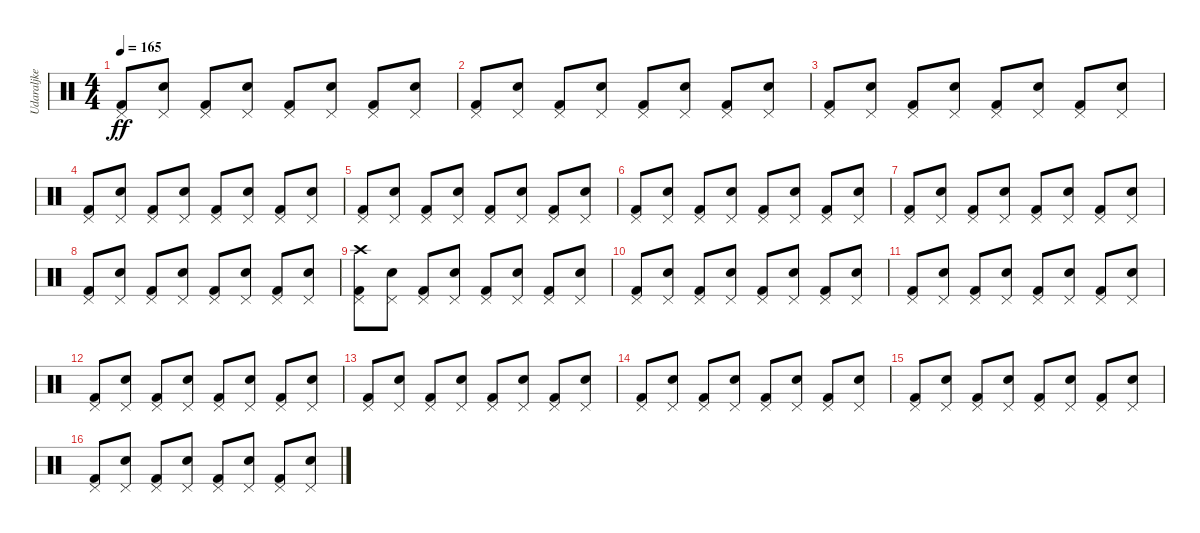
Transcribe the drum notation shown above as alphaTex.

\track ("Udaraljke" "Udaraljke") {instrument percussion}
\staff {score}
\articulation defaults
\ts (4 4)
\tempo 165
\clef neutral
\ks c
("Kick (hit) 2" "Pedal Hi-Hat (hit)").8{dy ff} ("Snare (hit) 2" "Pedal Hi-Hat (hit)").8 ("Kick (hit) 2" "Pedal Hi-Hat (hit)").8 ("Snare (hit) 2" "Pedal Hi-Hat (hit)").8 ("Kick (hit) 2" "Pedal Hi-Hat (hit)").8 ("Snare (hit) 2" "Pedal Hi-Hat (hit)").8 ("Kick (hit) 2" "Pedal Hi-Hat (hit)").8 ("Snare (hit) 2" "Pedal Hi-Hat (hit)").8 |
("Kick (hit) 2" "Pedal Hi-Hat (hit)").8 ("Snare (hit) 2" "Pedal Hi-Hat (hit)").8 ("Kick (hit) 2" "Pedal Hi-Hat (hit)").8 ("Snare (hit) 2" "Pedal Hi-Hat (hit)").8 ("Kick (hit) 2" "Pedal Hi-Hat (hit)").8 ("Snare (hit) 2" "Pedal Hi-Hat (hit)").8 ("Kick (hit) 2" "Pedal Hi-Hat (hit)").8 ("Snare (hit) 2" "Pedal Hi-Hat (hit)").8 |
("Kick (hit) 2" "Pedal Hi-Hat (hit)").8 ("Snare (hit) 2" "Pedal Hi-Hat (hit)").8 ("Kick (hit) 2" "Pedal Hi-Hat (hit)").8 ("Snare (hit) 2" "Pedal Hi-Hat (hit)").8 ("Kick (hit) 2" "Pedal Hi-Hat (hit)").8 ("Snare (hit) 2" "Pedal Hi-Hat (hit)").8 ("Kick (hit) 2" "Pedal Hi-Hat (hit)").8 ("Snare (hit) 2" "Pedal Hi-Hat (hit)").8 |
("Kick (hit) 2" "Pedal Hi-Hat (hit)").8 ("Snare (hit) 2" "Pedal Hi-Hat (hit)").8 ("Kick (hit) 2" "Pedal Hi-Hat (hit)").8 ("Snare (hit) 2" "Pedal Hi-Hat (hit)").8 ("Kick (hit) 2" "Pedal Hi-Hat (hit)").8 ("Snare (hit) 2" "Pedal Hi-Hat (hit)").8 ("Kick (hit) 2" "Pedal Hi-Hat (hit)").8 ("Snare (hit) 2" "Pedal Hi-Hat (hit)").8 |
("Kick (hit) 2" "Pedal Hi-Hat (hit)").8 ("Snare (hit) 2" "Pedal Hi-Hat (hit)").8 ("Kick (hit) 2" "Pedal Hi-Hat (hit)").8 ("Snare (hit) 2" "Pedal Hi-Hat (hit)").8 ("Kick (hit) 2" "Pedal Hi-Hat (hit)").8 ("Snare (hit) 2" "Pedal Hi-Hat (hit)").8 ("Kick (hit) 2" "Pedal Hi-Hat (hit)").8 ("Snare (hit) 2" "Pedal Hi-Hat (hit)").8 |
("Kick (hit) 2" "Pedal Hi-Hat (hit)").8 ("Snare (hit) 2" "Pedal Hi-Hat (hit)").8 ("Kick (hit) 2" "Pedal Hi-Hat (hit)").8 ("Snare (hit) 2" "Pedal Hi-Hat (hit)").8 ("Kick (hit) 2" "Pedal Hi-Hat (hit)").8 ("Snare (hit) 2" "Pedal Hi-Hat (hit)").8 ("Kick (hit) 2" "Pedal Hi-Hat (hit)").8 ("Snare (hit) 2" "Pedal Hi-Hat (hit)").8 |
("Kick (hit) 2" "Pedal Hi-Hat (hit)").8 ("Snare (hit) 2" "Pedal Hi-Hat (hit)").8 ("Kick (hit) 2" "Pedal Hi-Hat (hit)").8 ("Snare (hit) 2" "Pedal Hi-Hat (hit)").8 ("Kick (hit) 2" "Pedal Hi-Hat (hit)").8 ("Snare (hit) 2" "Pedal Hi-Hat (hit)").8 ("Kick (hit) 2" "Pedal Hi-Hat (hit)").8 ("Snare (hit) 2" "Pedal Hi-Hat (hit)").8 |
("Kick (hit) 2" "Pedal Hi-Hat (hit)").8 ("Snare (hit) 2" "Pedal Hi-Hat (hit)").8 ("Kick (hit) 2" "Pedal Hi-Hat (hit)").8 ("Snare (hit) 2" "Pedal Hi-Hat (hit)").8 ("Kick (hit) 2" "Pedal Hi-Hat (hit)").8 ("Snare (hit) 2" "Pedal Hi-Hat (hit)").8 ("Kick (hit) 2" "Pedal Hi-Hat (hit)").8 ("Snare (hit) 2" "Pedal Hi-Hat (hit)").8 |
("Kick (hit) 2" "Pedal Hi-Hat (hit)" "Crash high (hit)").8 ("Snare (hit) 2" "Pedal Hi-Hat (hit)").8 ("Kick (hit) 2" "Pedal Hi-Hat (hit)").8 ("Snare (hit) 2" "Pedal Hi-Hat (hit)").8 ("Kick (hit) 2" "Pedal Hi-Hat (hit)").8 ("Snare (hit) 2" "Pedal Hi-Hat (hit)").8 ("Kick (hit) 2" "Pedal Hi-Hat (hit)").8 ("Snare (hit) 2" "Pedal Hi-Hat (hit)").8 |
("Kick (hit) 2" "Pedal Hi-Hat (hit)").8 ("Snare (hit) 2" "Pedal Hi-Hat (hit)").8 ("Kick (hit) 2" "Pedal Hi-Hat (hit)").8 ("Snare (hit) 2" "Pedal Hi-Hat (hit)").8 ("Kick (hit) 2" "Pedal Hi-Hat (hit)").8 ("Snare (hit) 2" "Pedal Hi-Hat (hit)").8 ("Kick (hit) 2" "Pedal Hi-Hat (hit)").8 ("Snare (hit) 2" "Pedal Hi-Hat (hit)").8 |
("Kick (hit) 2" "Pedal Hi-Hat (hit)").8 ("Snare (hit) 2" "Pedal Hi-Hat (hit)").8 ("Kick (hit) 2" "Pedal Hi-Hat (hit)").8 ("Snare (hit) 2" "Pedal Hi-Hat (hit)").8 ("Kick (hit) 2" "Pedal Hi-Hat (hit)").8 ("Snare (hit) 2" "Pedal Hi-Hat (hit)").8 ("Kick (hit) 2" "Pedal Hi-Hat (hit)").8 ("Snare (hit) 2" "Pedal Hi-Hat (hit)").8 |
("Kick (hit) 2" "Pedal Hi-Hat (hit)").8 ("Snare (hit) 2" "Pedal Hi-Hat (hit)").8 ("Kick (hit) 2" "Pedal Hi-Hat (hit)").8 ("Snare (hit) 2" "Pedal Hi-Hat (hit)").8 ("Kick (hit) 2" "Pedal Hi-Hat (hit)").8 ("Snare (hit) 2" "Pedal Hi-Hat (hit)").8 ("Kick (hit) 2" "Pedal Hi-Hat (hit)").8 ("Snare (hit) 2" "Pedal Hi-Hat (hit)").8 |
("Kick (hit) 2" "Pedal Hi-Hat (hit)").8 ("Snare (hit) 2" "Pedal Hi-Hat (hit)").8 ("Kick (hit) 2" "Pedal Hi-Hat (hit)").8 ("Snare (hit) 2" "Pedal Hi-Hat (hit)").8 ("Kick (hit) 2" "Pedal Hi-Hat (hit)").8 ("Snare (hit) 2" "Pedal Hi-Hat (hit)").8 ("Kick (hit) 2" "Pedal Hi-Hat (hit)").8 ("Snare (hit) 2" "Pedal Hi-Hat (hit)").8 |
("Kick (hit) 2" "Pedal Hi-Hat (hit)").8 ("Snare (hit) 2" "Pedal Hi-Hat (hit)").8 ("Kick (hit) 2" "Pedal Hi-Hat (hit)").8 ("Snare (hit) 2" "Pedal Hi-Hat (hit)").8 ("Kick (hit) 2" "Pedal Hi-Hat (hit)").8 ("Snare (hit) 2" "Pedal Hi-Hat (hit)").8 ("Kick (hit) 2" "Pedal Hi-Hat (hit)").8 ("Snare (hit) 2" "Pedal Hi-Hat (hit)").8 |
("Kick (hit) 2" "Pedal Hi-Hat (hit)").8 ("Snare (hit) 2" "Pedal Hi-Hat (hit)").8 ("Kick (hit) 2" "Pedal Hi-Hat (hit)").8 ("Snare (hit) 2" "Pedal Hi-Hat (hit)").8 ("Kick (hit) 2" "Pedal Hi-Hat (hit)").8 ("Snare (hit) 2" "Pedal Hi-Hat (hit)").8 ("Kick (hit) 2" "Pedal Hi-Hat (hit)").8 ("Snare (hit) 2" "Pedal Hi-Hat (hit)").8 |
("Kick (hit) 2" "Pedal Hi-Hat (hit)").8 ("Snare (hit) 2" "Pedal Hi-Hat (hit)").8 ("Kick (hit) 2" "Pedal Hi-Hat (hit)").8 ("Snare (hit) 2" "Pedal Hi-Hat (hit)").8 ("Kick (hit) 2" "Pedal Hi-Hat (hit)").8 ("Snare (hit) 2" "Pedal Hi-Hat (hit)").8 ("Kick (hit) 2" "Pedal Hi-Hat (hit)").8 ("Snare (hit) 2" "Pedal Hi-Hat (hit)").8
